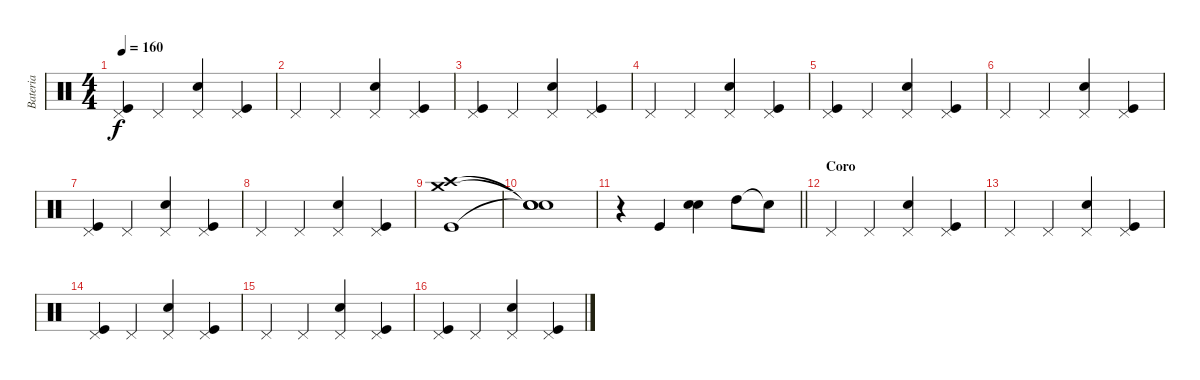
\track ("Bateria" "Bateria") {instrument percussion}
\staff {score}
\articulation defaults
\ts (4 4)
\tempo 160
\clef neutral
\ks c
("Kick (hit)" "Pedal Hi-Hat (hit)").4{dy f} "Pedal Hi-Hat (hit)".4 ("Snare (hit) 2" "Pedal Hi-Hat (hit)").4 ("Kick (hit)" "Pedal Hi-Hat (hit)").4 |
"Pedal Hi-Hat (hit)".4 "Pedal Hi-Hat (hit)".4 ("Snare (hit) 2" "Pedal Hi-Hat (hit)").4 ("Kick (hit)" "Pedal Hi-Hat (hit)").4 |
("Kick (hit)" "Pedal Hi-Hat (hit)").4 "Pedal Hi-Hat (hit)".4 ("Snare (hit) 2" "Pedal Hi-Hat (hit)").4 ("Kick (hit)" "Pedal Hi-Hat (hit)").4 |
"Pedal Hi-Hat (hit)".4 "Pedal Hi-Hat (hit)".4 ("Snare (hit) 2" "Pedal Hi-Hat (hit)").4 ("Kick (hit)" "Pedal Hi-Hat (hit)").4 |
("Kick (hit)" "Pedal Hi-Hat (hit)").4 "Pedal Hi-Hat (hit)".4 ("Snare (hit) 2" "Pedal Hi-Hat (hit)").4 ("Kick (hit)" "Pedal Hi-Hat (hit)").4 |
"Pedal Hi-Hat (hit)".4 "Pedal Hi-Hat (hit)".4 ("Snare (hit) 2" "Pedal Hi-Hat (hit)").4 ("Kick (hit)" "Pedal Hi-Hat (hit)").4 |
("Kick (hit)" "Pedal Hi-Hat (hit)").4 "Pedal Hi-Hat (hit)".4 ("Snare (hit) 2" "Pedal Hi-Hat (hit)").4 ("Kick (hit)" "Pedal Hi-Hat (hit)").4 |
"Pedal Hi-Hat (hit)".4 "Pedal Hi-Hat (hit)".4 ("Snare (hit) 2" "Pedal Hi-Hat (hit)").4 ("Kick (hit)" "Pedal Hi-Hat (hit)").4 |
("Crash medium (hit)" "Kick (hit)" "Crash high (hit)").1 |
("Snare (hit)"{t} "Snare (hit)"{t} "Snare (hit)"{t}).1 |
\barLineRight lightlight
r.4 "Kick (hit)".4 ("Snare (hit) 2" "Snare (hit) 2").4 "High Tom (hit)".8 "Snare (hit)"{t}.8 |
\section ("" "Coro")
"Pedal Hi-Hat (hit)".4 "Pedal Hi-Hat (hit)".4 ("Snare (hit) 2" "Pedal Hi-Hat (hit)").4 ("Kick (hit)" "Pedal Hi-Hat (hit)").4 |
"Pedal Hi-Hat (hit)".4 "Pedal Hi-Hat (hit)".4 ("Snare (hit) 2" "Pedal Hi-Hat (hit)").4 ("Kick (hit)" "Pedal Hi-Hat (hit)").4 |
("Kick (hit)" "Pedal Hi-Hat (hit)").4 "Pedal Hi-Hat (hit)".4 ("Snare (hit) 2" "Pedal Hi-Hat (hit)").4 ("Kick (hit)" "Pedal Hi-Hat (hit)").4 |
"Pedal Hi-Hat (hit)".4 "Pedal Hi-Hat (hit)".4 ("Snare (hit) 2" "Pedal Hi-Hat (hit)").4 ("Kick (hit)" "Pedal Hi-Hat (hit)").4 |
("Kick (hit)" "Pedal Hi-Hat (hit)").4 "Pedal Hi-Hat (hit)".4 ("Snare (hit) 2" "Pedal Hi-Hat (hit)").4 ("Kick (hit)" "Pedal Hi-Hat (hit)").4
